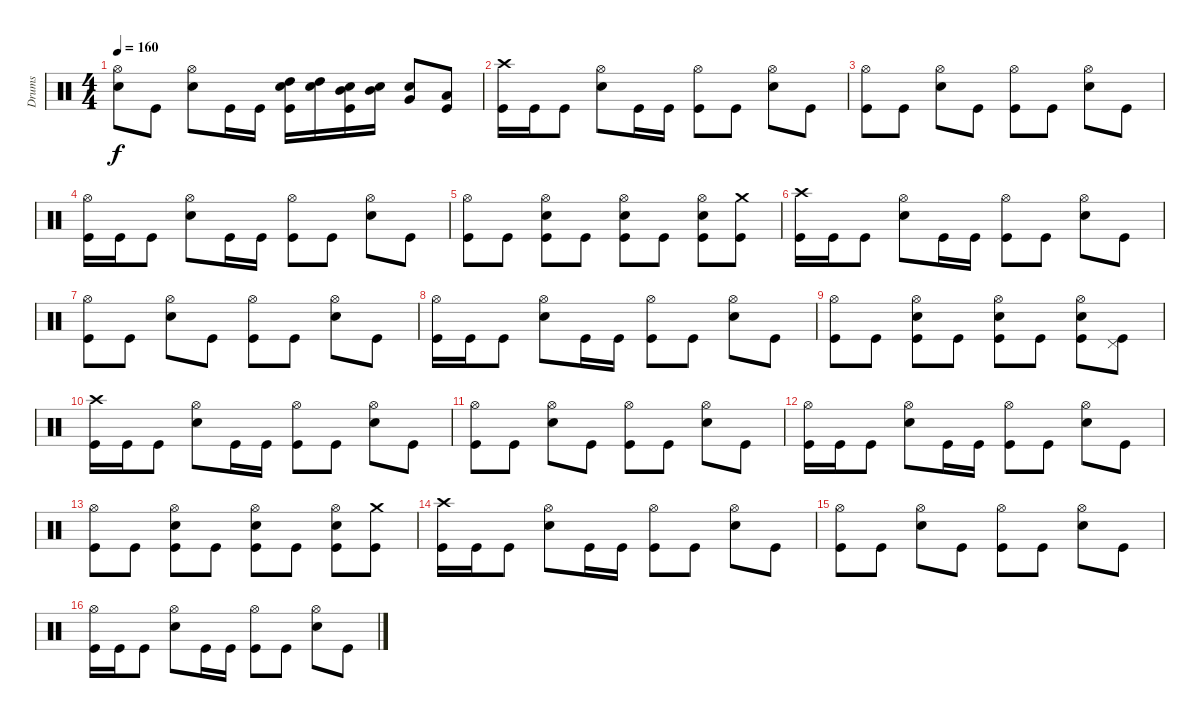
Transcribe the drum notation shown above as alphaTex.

\track ("Drums" "Drums") {instrument percussion}
\staff {score}
\articulation defaults
\ts (4 4)
\tempo 160
\clef neutral
\ks c
("Hi-Hat (open)" "Electric Snare (hit)").8{dy f} "Kick (hit)".8 ("Hi-Hat (open)" "Electric Snare (hit)").8 "Kick (hit)".16 "Kick (hit)".16 ("High Tom (hit)" "Electric Snare (hit)" "Kick (hit)").16 ("High Tom (hit)" "Electric Snare (hit)").16 ("Mid Tom (hit)" "Electric Snare (hit)" "Kick (hit)").16 ("Mid Tom (hit)" "Electric Snare (hit)").16 ("Very Low Tom (hit)" "Electric Snare (hit)").8 ("Low Floor Tom (hit)" "Kick (hit)").8 |
("Crash high (hit)" "Kick (hit)").16 "Kick (hit)".16 "Kick (hit)".8 ("Hi-Hat (open)" "Electric Snare (hit)").8 "Kick (hit)".16 "Kick (hit)".16 ("Hi-Hat (open)" "Kick (hit)").8 "Kick (hit)".8 ("Hi-Hat (open)" "Electric Snare (hit)").8 "Kick (hit)".8 |
("Hi-Hat (open)" "Kick (hit)").8 "Kick (hit)".8 ("Hi-Hat (open)" "Electric Snare (hit)").8 "Kick (hit)".8 ("Hi-Hat (open)" "Kick (hit)").8 "Kick (hit)".8 ("Hi-Hat (open)" "Electric Snare (hit)").8 "Kick (hit)".8 |
("Hi-Hat (open)" "Kick (hit)").16 "Kick (hit)".16 "Kick (hit)".8 ("Hi-Hat (open)" "Electric Snare (hit)").8 "Kick (hit)".16 "Kick (hit)".16 ("Hi-Hat (open)" "Kick (hit)").8 "Kick (hit)".8 ("Hi-Hat (open)" "Electric Snare (hit)").8 "Kick (hit)".8 |
("Hi-Hat (open)" "Kick (hit)").8 "Kick (hit)".8 ("Hi-Hat (open)" "Electric Snare (hit)" "Kick (hit)").8 "Kick (hit)".8 ("Hi-Hat (open)" "Electric Snare (hit)" "Kick (hit)").8 "Kick (hit)".8 ("Hi-Hat (open)" "Electric Snare (hit)" "Kick (hit)").8 ("Crash medium (hit)" "Kick (hit)").8 |
("Crash high (hit)" "Kick (hit)").16 "Kick (hit)".16 "Kick (hit)".8 ("Hi-Hat (open)" "Electric Snare (hit)").8 "Kick (hit)".16 "Kick (hit)".16 ("Hi-Hat (open)" "Kick (hit)").8 "Kick (hit)".8 ("Hi-Hat (open)" "Electric Snare (hit)").8 "Kick (hit)".8 |
("Hi-Hat (open)" "Kick (hit)").8 "Kick (hit)".8 ("Hi-Hat (open)" "Electric Snare (hit)").8 "Kick (hit)".8 ("Hi-Hat (open)" "Kick (hit)").8 "Kick (hit)".8 ("Hi-Hat (open)" "Electric Snare (hit)").8 "Kick (hit)".8 |
("Hi-Hat (open)" "Kick (hit)").16 "Kick (hit)".16 "Kick (hit)".8 ("Hi-Hat (open)" "Electric Snare (hit)").8 "Kick (hit)".16 "Kick (hit)".16 ("Hi-Hat (open)" "Kick (hit)").8 "Kick (hit)".8 ("Hi-Hat (open)" "Electric Snare (hit)").8 "Kick (hit)".8 |
("Hi-Hat (open)" "Kick (hit)").8 "Kick (hit)".8 ("Hi-Hat (open)" "Electric Snare (hit)" "Kick (hit)").8 "Kick (hit)".8 ("Hi-Hat (open)" "Electric Snare (hit)" "Kick (hit)").8 "Kick (hit)".8 ("Hi-Hat (open)" "Electric Snare (hit)" "Kick (hit)").8 ("Pedal Hi-Hat (hit)" "Kick (hit)").8 |
("Crash high (hit)" "Kick (hit)").16 "Kick (hit)".16 "Kick (hit)".8 ("Hi-Hat (open)" "Electric Snare (hit)").8 "Kick (hit)".16 "Kick (hit)".16 ("Hi-Hat (open)" "Kick (hit)").8 "Kick (hit)".8 ("Hi-Hat (open)" "Electric Snare (hit)").8 "Kick (hit)".8 |
("Hi-Hat (open)" "Kick (hit)").8 "Kick (hit)".8 ("Hi-Hat (open)" "Electric Snare (hit)").8 "Kick (hit)".8 ("Hi-Hat (open)" "Kick (hit)").8 "Kick (hit)".8 ("Hi-Hat (open)" "Electric Snare (hit)").8 "Kick (hit)".8 |
("Hi-Hat (open)" "Kick (hit)").16 "Kick (hit)".16 "Kick (hit)".8 ("Hi-Hat (open)" "Electric Snare (hit)").8 "Kick (hit)".16 "Kick (hit)".16 ("Hi-Hat (open)" "Kick (hit)").8 "Kick (hit)".8 ("Hi-Hat (open)" "Electric Snare (hit)").8 "Kick (hit)".8 |
("Hi-Hat (open)" "Kick (hit)").8 "Kick (hit)".8 ("Hi-Hat (open)" "Electric Snare (hit)" "Kick (hit)").8 "Kick (hit)".8 ("Hi-Hat (open)" "Electric Snare (hit)" "Kick (hit)").8 "Kick (hit)".8 ("Hi-Hat (open)" "Electric Snare (hit)" "Kick (hit)").8 ("Crash medium (hit)" "Kick (hit)").8 |
("Crash high (hit)" "Kick (hit)").16 "Kick (hit)".16 "Kick (hit)".8 ("Hi-Hat (open)" "Electric Snare (hit)").8 "Kick (hit)".16 "Kick (hit)".16 ("Hi-Hat (open)" "Kick (hit)").8 "Kick (hit)".8 ("Hi-Hat (open)" "Electric Snare (hit)").8 "Kick (hit)".8 |
("Hi-Hat (open)" "Kick (hit)").8 "Kick (hit)".8 ("Hi-Hat (open)" "Electric Snare (hit)").8 "Kick (hit)".8 ("Hi-Hat (open)" "Kick (hit)").8 "Kick (hit)".8 ("Hi-Hat (open)" "Electric Snare (hit)").8 "Kick (hit)".8 |
("Hi-Hat (open)" "Kick (hit)").16 "Kick (hit)".16 "Kick (hit)".8 ("Hi-Hat (open)" "Electric Snare (hit)").8 "Kick (hit)".16 "Kick (hit)".16 ("Hi-Hat (open)" "Kick (hit)").8 "Kick (hit)".8 ("Hi-Hat (open)" "Electric Snare (hit)").8 "Kick (hit)".8
